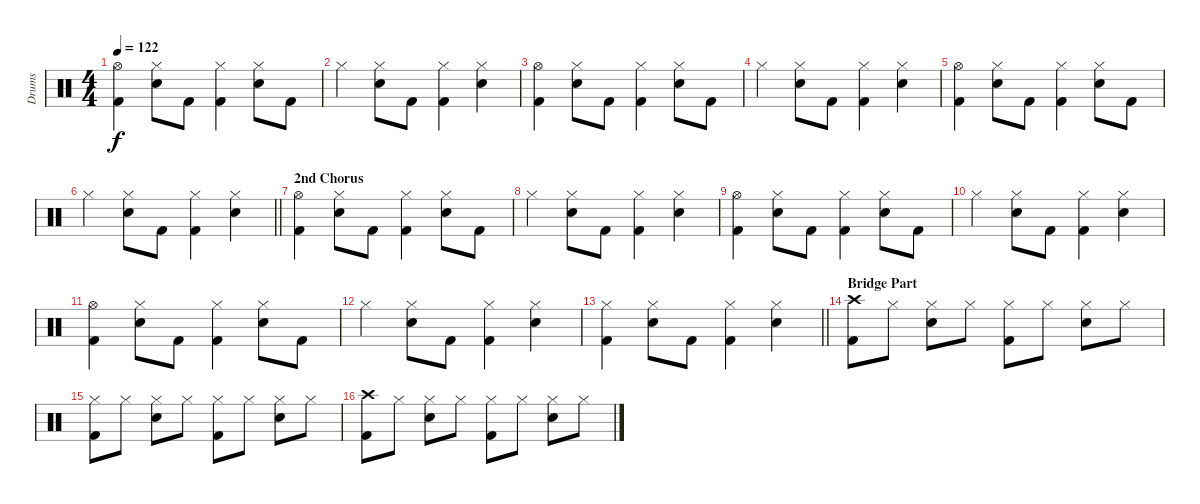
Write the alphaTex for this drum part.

\track ("Drums" "Drums") {instrument percussion}
\staff {score}
\articulation defaults
\ts (4 4)
\tempo 122
\clef neutral
\ks c
("Hi-Hat (open)" "Kick (hit) 2").4{dy f} ("Hi-Hat (closed)" "Snare (hit) 2").8 "Kick (hit) 2".8 ("Hi-Hat (closed)" "Kick (hit) 2").4 ("Hi-Hat (closed)" "Snare (hit) 2").8 "Kick (hit) 2".8 |
"Hi-Hat (closed)".4 ("Hi-Hat (closed)" "Snare (hit) 2").8 "Kick (hit) 2".8 ("Hi-Hat (closed)" "Kick (hit) 2").4 ("Hi-Hat (closed)" "Snare (hit) 2").4 |
("Hi-Hat (open)" "Kick (hit) 2").4 ("Hi-Hat (closed)" "Snare (hit) 2").8 "Kick (hit) 2".8 ("Hi-Hat (closed)" "Kick (hit) 2").4 ("Hi-Hat (closed)" "Snare (hit) 2").8 "Kick (hit) 2".8 |
"Hi-Hat (closed)".4 ("Hi-Hat (closed)" "Snare (hit) 2").8 "Kick (hit) 2".8 ("Hi-Hat (closed)" "Kick (hit) 2").4 ("Hi-Hat (closed)" "Snare (hit) 2").4 |
("Hi-Hat (open)" "Kick (hit) 2").4 ("Hi-Hat (closed)" "Snare (hit) 2").8 "Kick (hit) 2".8 ("Hi-Hat (closed)" "Kick (hit) 2").4 ("Hi-Hat (closed)" "Snare (hit) 2").8 "Kick (hit) 2".8 |
\barLineRight lightlight "Hi-Hat (closed)".4
("Hi-Hat (closed)" "Snare (hit) 2").8 "Kick (hit) 2".8 ("Hi-Hat (closed)" "Kick (hit) 2").4 ("Hi-Hat (closed)" "Snare (hit) 2").4 |
\section ("" "2nd Chorus")
("Hi-Hat (open)" "Kick (hit) 2").4 ("Hi-Hat (closed)" "Snare (hit) 2").8 "Kick (hit) 2".8 ("Hi-Hat (closed)" "Kick (hit) 2").4 ("Hi-Hat (closed)" "Snare (hit) 2").8 "Kick (hit) 2".8 |
"Hi-Hat (closed)".4 ("Hi-Hat (closed)" "Snare (hit) 2").8 "Kick (hit) 2".8 ("Hi-Hat (closed)" "Kick (hit) 2").4 ("Hi-Hat (closed)" "Snare (hit) 2").4 |
("Hi-Hat (open)" "Kick (hit) 2").4 ("Hi-Hat (closed)" "Snare (hit) 2").8 "Kick (hit) 2".8 ("Hi-Hat (closed)" "Kick (hit) 2").4 ("Hi-Hat (closed)" "Snare (hit) 2").8 "Kick (hit) 2".8 |
"Hi-Hat (closed)".4 ("Hi-Hat (closed)" "Snare (hit) 2").8 "Kick (hit) 2".8 ("Hi-Hat (closed)" "Kick (hit) 2").4 ("Hi-Hat (closed)" "Snare (hit) 2").4 |
("Hi-Hat (open)" "Kick (hit) 2").4 ("Hi-Hat (closed)" "Snare (hit) 2").8 "Kick (hit) 2".8 ("Hi-Hat (closed)" "Kick (hit) 2").4 ("Hi-Hat (closed)" "Snare (hit) 2").8 "Kick (hit) 2".8 |
"Hi-Hat (closed)".4 ("Hi-Hat (closed)" "Snare (hit) 2").8 "Kick (hit) 2".8 ("Hi-Hat (closed)" "Kick (hit) 2").4 ("Hi-Hat (closed)" "Snare (hit) 2").4 |
\barLineRight lightlight
("Hi-Hat (closed)" "Kick (hit) 2").4 ("Hi-Hat (closed)" "Snare (hit) 2").8 "Kick (hit) 2".8 ("Hi-Hat (closed)" "Kick (hit) 2").4 ("Hi-Hat (closed)" "Snare (hit) 2").4 |
\section ("" "Bridge Part")
("Crash high (hit)" "Kick (hit) 2").8 "Hi-Hat (closed)".8 ("Hi-Hat (closed)" "Snare (hit) 2").8 "Hi-Hat (closed)".8 ("Hi-Hat (closed)" "Kick (hit) 2").8 "Hi-Hat (closed)".8 ("Hi-Hat (closed)" "Snare (hit) 2").8 "Hi-Hat (closed)".8 |
("Hi-Hat (closed)" "Kick (hit) 2").8 "Hi-Hat (closed)".8 ("Hi-Hat (closed)" "Snare (hit) 2").8 "Hi-Hat (closed)".8 ("Hi-Hat (closed)" "Kick (hit) 2").8 "Hi-Hat (closed)".8 ("Hi-Hat (closed)" "Snare (hit) 2").8 "Hi-Hat (closed)".8 |
("Crash high (hit)" "Kick (hit) 2").8 "Hi-Hat (closed)".8 ("Hi-Hat (closed)" "Snare (hit) 2").8 "Hi-Hat (closed)".8 ("Hi-Hat (closed)" "Kick (hit) 2").8 "Hi-Hat (closed)".8 ("Hi-Hat (closed)" "Snare (hit) 2").8 "Hi-Hat (closed)".8
